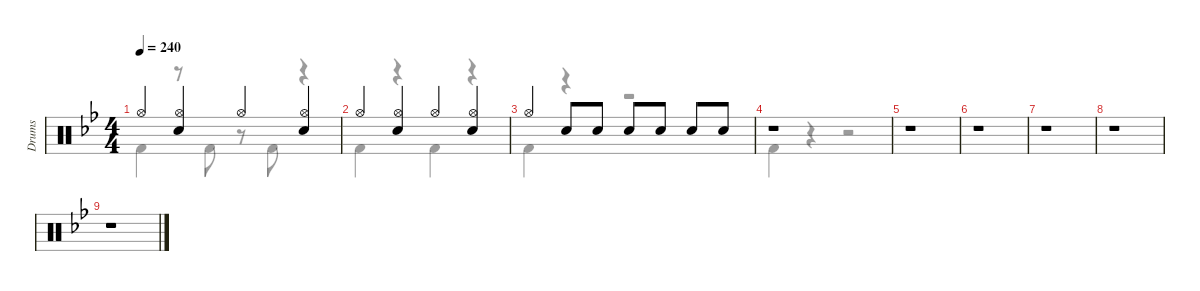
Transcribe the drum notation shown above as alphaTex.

\defaultSystemsLayout 4
\hideDynamics
\bracketExtendMode nobrackets
\otherSystemsTrackNameOrientation horizontal
\track ("Drums" "Drums") {defaultSystemsLayout 4 instrument percussion}
\staff {score}
\articulation defaults
\voice
\ts (4 4)
\tempo 240
\clef neutral
\scale
0.929975
\ks bb "Hi-Hat (open)"{acc forcenatural}.4{dy f beam Up}
("Hi-Hat (open)"{acc forcenatural} "Snare (hit) 2"{acc forcenatural}).4{beam Up} "Hi-Hat (open)"{acc forcenatural}.4{beam Up} ("Hi-Hat (open)"{acc forcenatural} "Snare (hit) 2"{acc forcenatural}).4{beam Up} |
\scale
0.929975 "Hi-Hat (open)"{acc forcenatural}.4{beam Up} ("Hi-Hat (open)"{acc forcenatural} "Snare (hit) 2"{acc forcenatural}).4{beam Up} "Hi-Hat (open)"{acc forcenatural}.4{beam Up} ("Hi-Hat (open)"{acc forcenatural} "Snare (hit) 2"{acc forcenatural}).4{beam Up} |
\scale
0.995058 "Hi-Hat (open)"{acc forcenatural}.4{beam Up} "Snare (hit) 2"{acc forcenatural}.8{beam Up} "Snare (hit) 2"{acc forcenatural}.8{dy mf beam Up} "Snare (hit) 2"{acc forcenatural}.8{dy f beam Up} "Snare (hit) 2"{acc forcenatural}.8{dy mf beam Up} "Snare (hit) 2"{acc forcenatural}.8{dy f beam Up} "Snare (hit) 2"{acc forcenatural}.8{dy mf beam Up} |
\scale
1.129 r.1{beam Up} |
\scale
0.937696 r.1{beam Down} |
\scale
0.937696 r.1{beam Down} |
\scale
0.995603 r.1{beam Down} |
\scale
1.07006 r.1{beam Down} |
\scale
0.929939 r.1{beam Down}
\voice
\clef neutral
\ottava regular
\simile none
\scale
0.929975
\ks bb "Kick (hit) 2"{acc forcenatural}.4{dy f beam Down}
r.8{beam Down} "Kick (hit) 2"{acc forcenatural}.8{beam Down} r.8{beam Down} "Kick (hit) 2"{acc forcenatural}.8{beam Down} r.4{beam Down} |
\scale
0.929975 "Kick (hit) 2"{acc forcenatural}.4{beam Down} r.4{beam Down} "Kick (hit) 2"{acc forcenatural}.4{beam Down} r.4{beam Down} |
\scale
0.995058 "Kick (hit) 2"{acc forcenatural}.4{beam Down} r.4{beam Down} r.2{beam Down} |
\scale
1.129 "Kick (hit) 2"{acc forcenatural}.4{beam Down} r.4{beam Down} r.2{beam Down} |
\scale
0.937696 |
\scale
0.937696 |
\scale
0.995603 |
\scale
1.07006 |
\scale
0.929939
